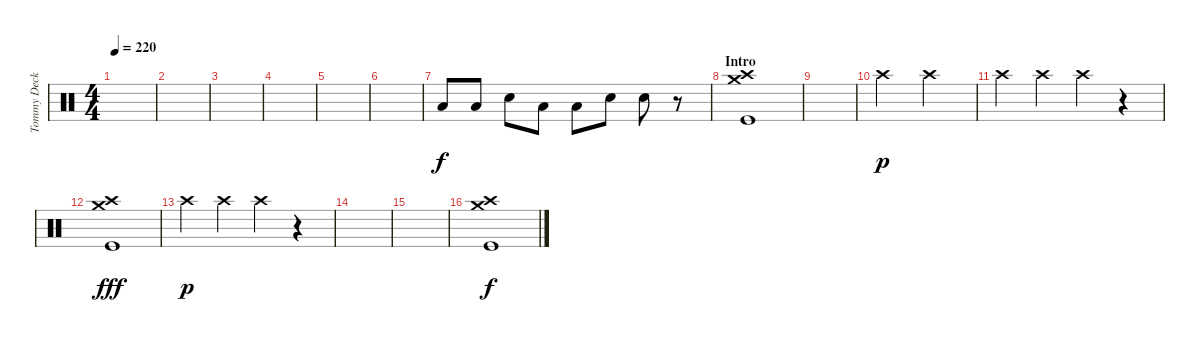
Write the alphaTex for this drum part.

\track ("Tommy Decker" "Tommy Deck") {instrument percussion}
\staff {score}
\articulation defaults
\ts (4 4)
\tempo 220
\clef neutral
\ks c
|
|
|
|
|
|
"Low Floor Tom (hit)".8 "Low Floor Tom (hit)".8 "Electric Snare (hit)".8 "Low Floor Tom (hit)".8 "Low Floor Tom (hit)".8 "Electric Snare (hit)".8 "Electric Snare (hit)".8 r.8 |
\section ("" "Intro")
("Crash high (hit)" "Crash medium (hit)" "Kick (hit)").1 |
|
"Crash high (hit)".2{dy p} "Crash high (hit)".2 |
"Crash high (hit)".4 "Crash high (hit)".4 "Crash high (hit)".4 r.4 |
("Crash high (hit)" "Crash medium (hit)" "Kick (hit)").1{dy fff} |
"Crash high (hit)".4{dy p} "Crash high (hit)".4 "Crash high (hit)".4 r.4 |
|
|
("Crash high (hit)" "Crash medium (hit)" "Kick (hit)").1{dy f}
